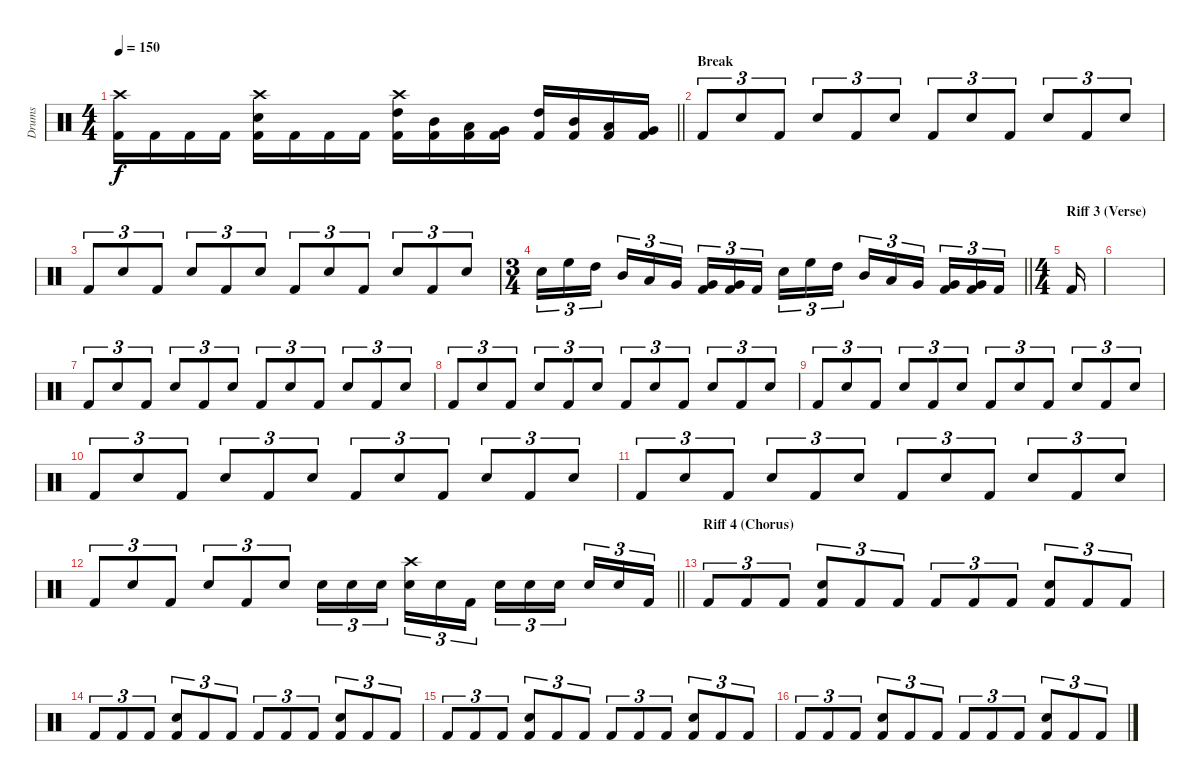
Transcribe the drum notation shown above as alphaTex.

\track ("Drums" "Drums") {instrument percussion}
\staff {score}
\articulation defaults
\ts (4 4)
\tempo 150
\clef neutral
\barLineRight lightlight
\ks c
("Crash high (hit)" "Kick (hit) 2").16{dy f} "Kick (hit) 2".16 "Kick (hit) 2".16 "Kick (hit) 2".16 ("Crash high (hit)" "Snare (hit) 2" "Kick (hit) 2").16 "Kick (hit) 2".16 "Kick (hit) 2".16 "Kick (hit) 2".16 ("Crash high (hit)" "High Tom (hit)" "Kick (hit) 2").16 ("Mid Tom (hit)" "Kick (hit) 2").16 ("Low Tom (hit)" "Kick (hit) 2").16 ("Very Low Tom (hit)" "Kick (hit) 2").16 ("High Tom (hit)" "Kick (hit) 2").16 ("Mid Tom (hit)" "Kick (hit) 2").16 ("Low Tom (hit)" "Kick (hit) 2").16 ("Very Low Tom (hit)" "Kick (hit) 2").16 |
\section ("" "Break")
"Kick (hit) 2".8{tu (3 2)} "Snare (hit) 2".8{tu (3 2)} "Kick (hit) 2".8{tu (3 2)} "Snare (hit) 2".8{tu (3 2)} "Kick (hit) 2".8{tu (3 2)} "Snare (hit) 2".8{tu (3 2)} "Kick (hit) 2".8{tu (3 2)} "Snare (hit) 2".8{tu (3 2)} "Kick (hit) 2".8{tu (3 2)} "Snare (hit) 2".8{tu (3 2)} "Kick (hit) 2".8{tu (3 2)} "Snare (hit) 2".8{tu (3 2)} |
"Kick (hit) 2".8{tu (3 2)} "Snare (hit) 2".8{tu (3 2)} "Kick (hit) 2".8{tu (3 2)} "Snare (hit) 2".8{tu (3 2)} "Kick (hit) 2".8{tu (3 2)} "Snare (hit) 2".8{tu (3 2)} "Kick (hit) 2".8{tu (3 2)} "Snare (hit) 2".8{tu (3 2)} "Kick (hit) 2".8{tu (3 2)} "Snare (hit) 2".8{tu (3 2)} "Kick (hit) 2".8{tu (3 2)} "Snare (hit) 2".8{tu (3 2)} |
\ts (3 4)
\barLineRight lightlight "Snare (hit) 2".16{tu (3 2)} "High Floor Tom (hit)".16{tu (3 2)} "High Tom (hit)".16{tu (3 2) beam splitsecondary} "Mid Tom (hit)".16{tu (3 2)} "Low Tom (hit)".16{tu (3 2)} "Very Low Tom (hit)".16{tu (3 2)}
("Very Low Tom (hit)" "Kick (hit) 2").16{tu (3 2)} ("Very Low Tom (hit)" "Kick (hit) 2").16{tu (3 2)} "Kick (hit) 2".16{tu (3 2) beam splitsecondary} "Snare (hit) 2".16{tu (3 2)} "High Floor Tom (hit)".16{tu (3 2)} "High Tom (hit)".16{tu (3 2)} "Mid Tom (hit)".16{tu (3 2)} "Low Tom (hit)".16{tu (3 2)} "Very Low Tom (hit)".16{tu (3 2) beam splitsecondary} ("Very Low Tom (hit)" "Kick (hit) 2").16{tu (3 2)} ("Very Low Tom (hit)" "Kick (hit) 2").16{tu (3 2)} "Kick (hit) 2".16{tu (3 2)} |
\ts (4 4)
\section ("" "Riff 3 (Verse)")
"Kick (hit) 2".16 |
|
"Kick (hit) 2".8{tu (3 2)} "Snare (hit) 2".8{tu (3 2)} "Kick (hit) 2".8{tu (3 2)} "Snare (hit) 2".8{tu (3 2)} "Kick (hit) 2".8{tu (3 2)} "Snare (hit) 2".8{tu (3 2)} "Kick (hit) 2".8{tu (3 2)} "Snare (hit) 2".8{tu (3 2)} "Kick (hit) 2".8{tu (3 2)} "Snare (hit) 2".8{tu (3 2)} "Kick (hit) 2".8{tu (3 2)} "Snare (hit) 2".8{tu (3 2)} |
"Kick (hit) 2".8{tu (3 2)} "Snare (hit) 2".8{tu (3 2)} "Kick (hit) 2".8{tu (3 2)} "Snare (hit) 2".8{tu (3 2)} "Kick (hit) 2".8{tu (3 2)} "Snare (hit) 2".8{tu (3 2)} "Kick (hit) 2".8{tu (3 2)} "Snare (hit) 2".8{tu (3 2)} "Kick (hit) 2".8{tu (3 2)} "Snare (hit) 2".8{tu (3 2)} "Kick (hit) 2".8{tu (3 2)} "Snare (hit) 2".8{tu (3 2)} |
"Kick (hit) 2".8{tu (3 2)} "Snare (hit) 2".8{tu (3 2)} "Kick (hit) 2".8{tu (3 2)} "Snare (hit) 2".8{tu (3 2)} "Kick (hit) 2".8{tu (3 2)} "Snare (hit) 2".8{tu (3 2)} "Kick (hit) 2".8{tu (3 2)} "Snare (hit) 2".8{tu (3 2)} "Kick (hit) 2".8{tu (3 2)} "Snare (hit) 2".8{tu (3 2)} "Kick (hit) 2".8{tu (3 2)} "Snare (hit) 2".8{tu (3 2)} |
"Kick (hit) 2".8{tu (3 2)} "Snare (hit) 2".8{tu (3 2)} "Kick (hit) 2".8{tu (3 2)} "Snare (hit) 2".8{tu (3 2)} "Kick (hit) 2".8{tu (3 2)} "Snare (hit) 2".8{tu (3 2)} "Kick (hit) 2".8{tu (3 2)} "Snare (hit) 2".8{tu (3 2)} "Kick (hit) 2".8{tu (3 2)} "Snare (hit) 2".8{tu (3 2)} "Kick (hit) 2".8{tu (3 2)} "Snare (hit) 2".8{tu (3 2)} |
"Kick (hit) 2".8{tu (3 2)} "Snare (hit) 2".8{tu (3 2)} "Kick (hit) 2".8{tu (3 2)} "Snare (hit) 2".8{tu (3 2)} "Kick (hit) 2".8{tu (3 2)} "Snare (hit) 2".8{tu (3 2)} "Kick (hit) 2".8{tu (3 2)} "Snare (hit) 2".8{tu (3 2)} "Kick (hit) 2".8{tu (3 2)} "Snare (hit) 2".8{tu (3 2)} "Kick (hit) 2".8{tu (3 2)} "Snare (hit) 2".8{tu (3 2)} |
\barLineRight lightlight "Kick (hit) 2".8{tu (3 2)} "Snare (hit) 2".8{tu (3 2)} "Kick (hit) 2".8{tu (3 2)} "Snare (hit) 2".8{tu (3 2)} "Kick (hit) 2".8{tu (3 2)} "Snare (hit) 2".8{tu (3 2)} "Snare (hit) 2".16{tu (3 2)} "Snare (hit) 2".16{tu (3 2)} "Snare (hit) 2".16{tu (3 2) beam splitsecondary}
("Crash high (hit)" "Snare (hit) 2").16{tu (3 2)} "Snare (hit) 2".16{tu (3 2)} "Kick (hit) 2".16{tu (3 2)} "Snare (hit) 2".16{tu (3 2)} "Snare (hit) 2".16{tu (3 2)} "Snare (hit) 2".16{tu (3 2) beam splitsecondary} "Snare (hit) 2".16{tu (3 2)} "Snare (hit) 2".16{tu (3 2)} "Kick (hit) 2".16{tu (3 2)} |
\section ("" "Riff 4 (Chorus)")
"Kick (hit) 2".8{tu (3 2)} "Kick (hit) 2".8{tu (3 2)} "Kick (hit) 2".8{tu (3 2)} ("Snare (hit) 2" "Kick (hit) 2").8{tu (3 2)} "Kick (hit) 2".8{tu (3 2)} "Kick (hit) 2".8{tu (3 2)} "Kick (hit) 2".8{tu (3 2)} "Kick (hit) 2".8{tu (3 2)} "Kick (hit) 2".8{tu (3 2)} ("Snare (hit) 2" "Kick (hit) 2").8{tu (3 2)} "Kick (hit) 2".8{tu (3 2)} "Kick (hit) 2".8{tu (3 2)} |
"Kick (hit) 2".8{tu (3 2)} "Kick (hit) 2".8{tu (3 2)} "Kick (hit) 2".8{tu (3 2)} ("Snare (hit) 2" "Kick (hit) 2").8{tu (3 2)} "Kick (hit) 2".8{tu (3 2)} "Kick (hit) 2".8{tu (3 2)} "Kick (hit) 2".8{tu (3 2)} "Kick (hit) 2".8{tu (3 2)} "Kick (hit) 2".8{tu (3 2)} ("Snare (hit) 2" "Kick (hit) 2").8{tu (3 2)} "Kick (hit) 2".8{tu (3 2)} "Kick (hit) 2".8{tu (3 2)} |
"Kick (hit) 2".8{tu (3 2)} "Kick (hit) 2".8{tu (3 2)} "Kick (hit) 2".8{tu (3 2)} ("Snare (hit) 2" "Kick (hit) 2").8{tu (3 2)} "Kick (hit) 2".8{tu (3 2)} "Kick (hit) 2".8{tu (3 2)} "Kick (hit) 2".8{tu (3 2)} "Kick (hit) 2".8{tu (3 2)} "Kick (hit) 2".8{tu (3 2)} ("Snare (hit) 2" "Kick (hit) 2").8{tu (3 2)} "Kick (hit) 2".8{tu (3 2)} "Kick (hit) 2".8{tu (3 2)} |
"Kick (hit) 2".8{tu (3 2)} "Kick (hit) 2".8{tu (3 2)} "Kick (hit) 2".8{tu (3 2)} ("Snare (hit) 2" "Kick (hit) 2").8{tu (3 2)} "Kick (hit) 2".8{tu (3 2)} "Kick (hit) 2".8{tu (3 2)} "Kick (hit) 2".8{tu (3 2)} "Kick (hit) 2".8{tu (3 2)} "Kick (hit) 2".8{tu (3 2)} ("Snare (hit) 2" "Kick (hit) 2").8{tu (3 2)} "Kick (hit) 2".8{tu (3 2)} "Kick (hit) 2".8{tu (3 2)}
